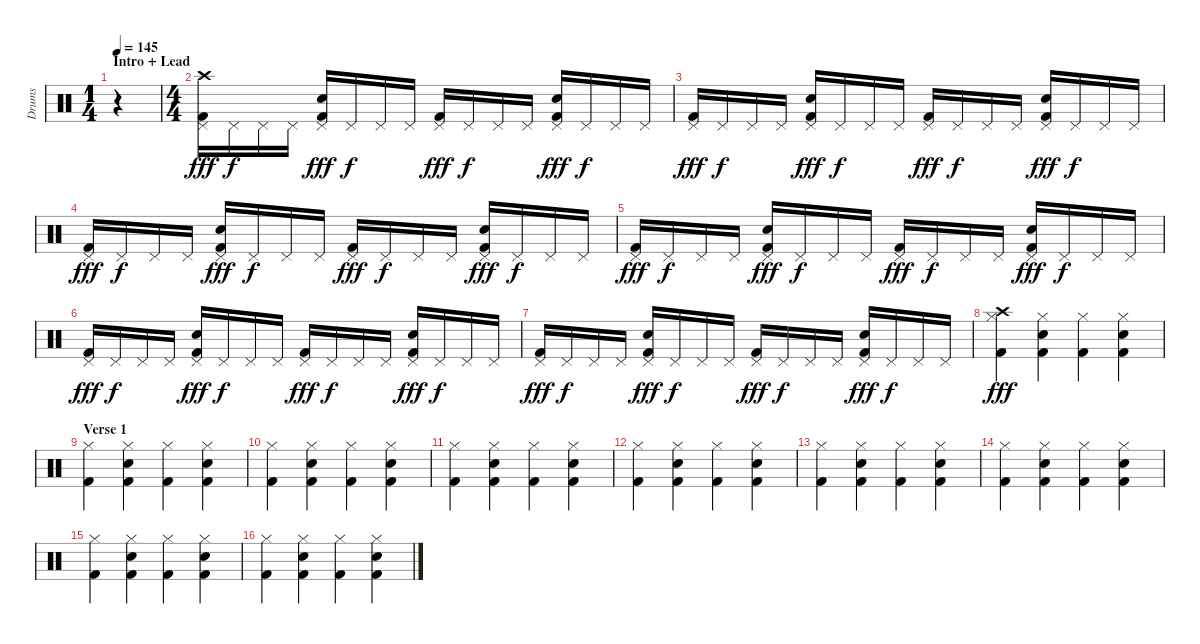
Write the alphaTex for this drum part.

\track ("Drums" "Drums") {instrument percussion}
\staff {score}
\articulation defaults
\ts (1 4)
\section ("" "Intro + Lead")
\tempo 145
\clef neutral
\ks c
r.4{dy fff} |
\ts (4 4)
("Crash high (hit)" "Pedal Hi-Hat (hit)" "Kick (hit) 2").16 "Pedal Hi-Hat (hit)".16{dy f} "Pedal Hi-Hat (hit)".16 "Pedal Hi-Hat (hit)".16 ("Pedal Hi-Hat (hit)" "Electric Snare (hit)" "Kick (hit) 2").16{dy fff} "Pedal Hi-Hat (hit)".16{dy f} "Pedal Hi-Hat (hit)".16 "Pedal Hi-Hat (hit)".16 ("Pedal Hi-Hat (hit)" "Kick (hit) 2").16{dy fff} "Pedal Hi-Hat (hit)".16{dy f} "Pedal Hi-Hat (hit)".16 "Pedal Hi-Hat (hit)".16 ("Pedal Hi-Hat (hit)" "Electric Snare (hit)" "Kick (hit) 2").16{dy fff} "Pedal Hi-Hat (hit)".16{dy f} "Pedal Hi-Hat (hit)".16 "Pedal Hi-Hat (hit)".16 |
("Pedal Hi-Hat (hit)" "Kick (hit) 2").16{dy fff} "Pedal Hi-Hat (hit)".16{dy f} "Pedal Hi-Hat (hit)".16 "Pedal Hi-Hat (hit)".16 ("Pedal Hi-Hat (hit)" "Electric Snare (hit)" "Kick (hit) 2").16{dy fff} "Pedal Hi-Hat (hit)".16{dy f} "Pedal Hi-Hat (hit)".16 "Pedal Hi-Hat (hit)".16 ("Pedal Hi-Hat (hit)" "Kick (hit) 2").16{dy fff} "Pedal Hi-Hat (hit)".16{dy f} "Pedal Hi-Hat (hit)".16 "Pedal Hi-Hat (hit)".16 ("Pedal Hi-Hat (hit)" "Electric Snare (hit)" "Kick (hit) 2").16{dy fff} "Pedal Hi-Hat (hit)".16{dy f} "Pedal Hi-Hat (hit)".16 "Pedal Hi-Hat (hit)".16 |
("Pedal Hi-Hat (hit)" "Kick (hit) 2").16{dy fff} "Pedal Hi-Hat (hit)".16{dy f} "Pedal Hi-Hat (hit)".16 "Pedal Hi-Hat (hit)".16 ("Pedal Hi-Hat (hit)" "Electric Snare (hit)" "Kick (hit) 2").16{dy fff} "Pedal Hi-Hat (hit)".16{dy f} "Pedal Hi-Hat (hit)".16 "Pedal Hi-Hat (hit)".16 ("Pedal Hi-Hat (hit)" "Kick (hit) 2").16{dy fff} "Pedal Hi-Hat (hit)".16{dy f} "Pedal Hi-Hat (hit)".16 "Pedal Hi-Hat (hit)".16 ("Pedal Hi-Hat (hit)" "Electric Snare (hit)" "Kick (hit) 2").16{dy fff} "Pedal Hi-Hat (hit)".16{dy f} "Pedal Hi-Hat (hit)".16 "Pedal Hi-Hat (hit)".16 |
("Pedal Hi-Hat (hit)" "Kick (hit) 2").16{dy fff} "Pedal Hi-Hat (hit)".16{dy f} "Pedal Hi-Hat (hit)".16 "Pedal Hi-Hat (hit)".16 ("Pedal Hi-Hat (hit)" "Electric Snare (hit)" "Kick (hit) 2").16{dy fff} "Pedal Hi-Hat (hit)".16{dy f} "Pedal Hi-Hat (hit)".16 "Pedal Hi-Hat (hit)".16 ("Pedal Hi-Hat (hit)" "Kick (hit) 2").16{dy fff} "Pedal Hi-Hat (hit)".16{dy f} "Pedal Hi-Hat (hit)".16 "Pedal Hi-Hat (hit)".16 ("Pedal Hi-Hat (hit)" "Electric Snare (hit)" "Kick (hit) 2").16{dy fff} "Pedal Hi-Hat (hit)".16{dy f} "Pedal Hi-Hat (hit)".16 "Pedal Hi-Hat (hit)".16 |
("Pedal Hi-Hat (hit)" "Kick (hit) 2").16{dy fff} "Pedal Hi-Hat (hit)".16{dy f} "Pedal Hi-Hat (hit)".16 "Pedal Hi-Hat (hit)".16 ("Pedal Hi-Hat (hit)" "Electric Snare (hit)" "Kick (hit) 2").16{dy fff} "Pedal Hi-Hat (hit)".16{dy f} "Pedal Hi-Hat (hit)".16 "Pedal Hi-Hat (hit)".16 ("Pedal Hi-Hat (hit)" "Kick (hit) 2").16{dy fff} "Pedal Hi-Hat (hit)".16{dy f} "Pedal Hi-Hat (hit)".16 "Pedal Hi-Hat (hit)".16 ("Pedal Hi-Hat (hit)" "Electric Snare (hit)" "Kick (hit) 2").16{dy fff} "Pedal Hi-Hat (hit)".16{dy f} "Pedal Hi-Hat (hit)".16 "Pedal Hi-Hat (hit)".16 |
("Pedal Hi-Hat (hit)" "Kick (hit) 2").16{dy fff} "Pedal Hi-Hat (hit)".16{dy f} "Pedal Hi-Hat (hit)".16 "Pedal Hi-Hat (hit)".16 ("Pedal Hi-Hat (hit)" "Electric Snare (hit)" "Kick (hit) 2").16{dy fff} "Pedal Hi-Hat (hit)".16{dy f} "Pedal Hi-Hat (hit)".16 "Pedal Hi-Hat (hit)".16 ("Pedal Hi-Hat (hit)" "Kick (hit) 2").16{dy fff} "Pedal Hi-Hat (hit)".16{dy f} "Pedal Hi-Hat (hit)".16 "Pedal Hi-Hat (hit)".16 ("Pedal Hi-Hat (hit)" "Electric Snare (hit)" "Kick (hit) 2").16{dy fff} "Pedal Hi-Hat (hit)".16{dy f} "Pedal Hi-Hat (hit)".16 "Pedal Hi-Hat (hit)".16 |
("Crash high (hit)" "Hi-Hat (closed)" "Kick (hit) 2").4{dy fff} ("Hi-Hat (closed)" "Electric Snare (hit)" "Kick (hit) 2").4 ("Hi-Hat (closed)" "Kick (hit) 2").4 ("Hi-Hat (closed)" "Electric Snare (hit)" "Kick (hit) 2").4 |
\section ("" "Verse 1")
("Hi-Hat (closed)" "Kick (hit) 2").4 ("Hi-Hat (closed)" "Electric Snare (hit)" "Kick (hit) 2").4 ("Hi-Hat (closed)" "Kick (hit) 2").4 ("Hi-Hat (closed)" "Electric Snare (hit)" "Kick (hit) 2").4 |
("Hi-Hat (closed)" "Kick (hit) 2").4 ("Hi-Hat (closed)" "Electric Snare (hit)" "Kick (hit) 2").4 ("Hi-Hat (closed)" "Kick (hit) 2").4 ("Hi-Hat (closed)" "Electric Snare (hit)" "Kick (hit) 2").4 |
("Hi-Hat (closed)" "Kick (hit) 2").4 ("Hi-Hat (closed)" "Electric Snare (hit)" "Kick (hit) 2").4 ("Hi-Hat (closed)" "Kick (hit) 2").4 ("Hi-Hat (closed)" "Electric Snare (hit)" "Kick (hit) 2").4 |
("Hi-Hat (closed)" "Kick (hit) 2").4 ("Hi-Hat (closed)" "Electric Snare (hit)" "Kick (hit) 2").4 ("Hi-Hat (closed)" "Kick (hit) 2").4 ("Hi-Hat (closed)" "Electric Snare (hit)" "Kick (hit) 2").4 |
("Hi-Hat (closed)" "Kick (hit) 2").4 ("Hi-Hat (closed)" "Electric Snare (hit)" "Kick (hit) 2").4 ("Hi-Hat (closed)" "Kick (hit) 2").4 ("Hi-Hat (closed)" "Electric Snare (hit)" "Kick (hit) 2").4 |
("Hi-Hat (closed)" "Kick (hit) 2").4 ("Hi-Hat (closed)" "Electric Snare (hit)" "Kick (hit) 2").4 ("Hi-Hat (closed)" "Kick (hit) 2").4 ("Hi-Hat (closed)" "Electric Snare (hit)" "Kick (hit) 2").4 |
("Hi-Hat (closed)" "Kick (hit) 2").4 ("Hi-Hat (closed)" "Electric Snare (hit)" "Kick (hit) 2").4 ("Hi-Hat (closed)" "Kick (hit) 2").4 ("Hi-Hat (closed)" "Electric Snare (hit)" "Kick (hit) 2").4 |
("Hi-Hat (closed)" "Kick (hit) 2").4 ("Hi-Hat (closed)" "Electric Snare (hit)" "Kick (hit) 2").4 ("Hi-Hat (closed)" "Kick (hit) 2").4 ("Hi-Hat (closed)" "Electric Snare (hit)" "Kick (hit) 2").4
